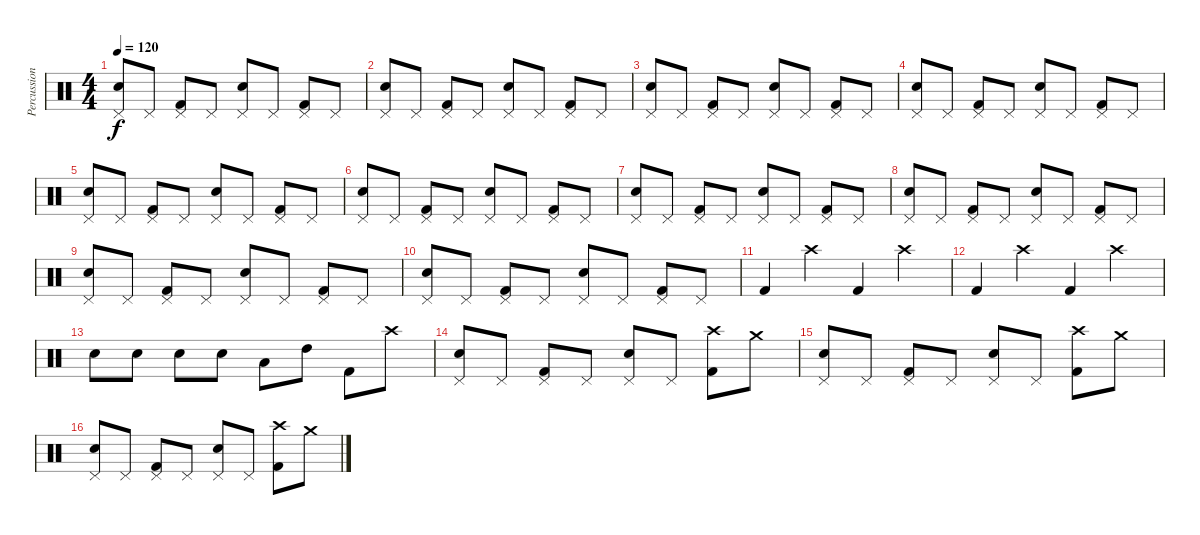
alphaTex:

\track ("Percussion" "Percussion") {instrument percussion}
\staff {score}
\articulation defaults
\ts (4 4)
\tempo 120
\clef neutral
\ks c
("Pedal Hi-Hat (hit)" "Snare (hit) 2").8{dy f} "Pedal Hi-Hat (hit)".8 ("Pedal Hi-Hat (hit)" "Kick (hit) 2").8 "Pedal Hi-Hat (hit)".8 ("Pedal Hi-Hat (hit)" "Snare (hit) 2").8 "Pedal Hi-Hat (hit)".8 ("Pedal Hi-Hat (hit)" "Kick (hit) 2").8 "Pedal Hi-Hat (hit)".8 |
("Pedal Hi-Hat (hit)" "Snare (hit) 2").8 "Pedal Hi-Hat (hit)".8 ("Pedal Hi-Hat (hit)" "Kick (hit) 2").8 "Pedal Hi-Hat (hit)".8 ("Pedal Hi-Hat (hit)" "Snare (hit) 2").8 "Pedal Hi-Hat (hit)".8 ("Pedal Hi-Hat (hit)" "Kick (hit) 2").8 "Pedal Hi-Hat (hit)".8 |
("Pedal Hi-Hat (hit)" "Snare (hit) 2").8 "Pedal Hi-Hat (hit)".8 ("Pedal Hi-Hat (hit)" "Kick (hit) 2").8 "Pedal Hi-Hat (hit)".8 ("Pedal Hi-Hat (hit)" "Snare (hit) 2").8 "Pedal Hi-Hat (hit)".8 ("Pedal Hi-Hat (hit)" "Kick (hit) 2").8 "Pedal Hi-Hat (hit)".8 |
("Pedal Hi-Hat (hit)" "Snare (hit) 2").8 "Pedal Hi-Hat (hit)".8 ("Pedal Hi-Hat (hit)" "Kick (hit) 2").8 "Pedal Hi-Hat (hit)".8 ("Pedal Hi-Hat (hit)" "Snare (hit) 2").8 "Pedal Hi-Hat (hit)".8 ("Pedal Hi-Hat (hit)" "Kick (hit) 2").8 "Pedal Hi-Hat (hit)".8 |
("Pedal Hi-Hat (hit)" "Snare (hit) 2").8 "Pedal Hi-Hat (hit)".8 ("Pedal Hi-Hat (hit)" "Kick (hit) 2").8 "Pedal Hi-Hat (hit)".8 ("Pedal Hi-Hat (hit)" "Snare (hit) 2").8 "Pedal Hi-Hat (hit)".8 ("Pedal Hi-Hat (hit)" "Kick (hit) 2").8 "Pedal Hi-Hat (hit)".8 |
("Pedal Hi-Hat (hit)" "Snare (hit) 2").8 "Pedal Hi-Hat (hit)".8 ("Pedal Hi-Hat (hit)" "Kick (hit) 2").8 "Pedal Hi-Hat (hit)".8 ("Pedal Hi-Hat (hit)" "Snare (hit) 2").8 "Pedal Hi-Hat (hit)".8 ("Pedal Hi-Hat (hit)" "Kick (hit) 2").8 "Pedal Hi-Hat (hit)".8 |
("Pedal Hi-Hat (hit)" "Snare (hit) 2").8 "Pedal Hi-Hat (hit)".8 ("Pedal Hi-Hat (hit)" "Kick (hit) 2").8 "Pedal Hi-Hat (hit)".8 ("Pedal Hi-Hat (hit)" "Snare (hit) 2").8 "Pedal Hi-Hat (hit)".8 ("Pedal Hi-Hat (hit)" "Kick (hit) 2").8 "Pedal Hi-Hat (hit)".8 |
("Pedal Hi-Hat (hit)" "Snare (hit) 2").8 "Pedal Hi-Hat (hit)".8 ("Pedal Hi-Hat (hit)" "Kick (hit) 2").8 "Pedal Hi-Hat (hit)".8 ("Pedal Hi-Hat (hit)" "Snare (hit) 2").8 "Pedal Hi-Hat (hit)".8 ("Pedal Hi-Hat (hit)" "Kick (hit) 2").8 "Pedal Hi-Hat (hit)".8 |
("Pedal Hi-Hat (hit)" "Snare (hit) 2").8 "Pedal Hi-Hat (hit)".8 ("Pedal Hi-Hat (hit)" "Kick (hit) 2").8 "Pedal Hi-Hat (hit)".8 ("Pedal Hi-Hat (hit)" "Snare (hit) 2").8 "Pedal Hi-Hat (hit)".8 ("Pedal Hi-Hat (hit)" "Kick (hit) 2").8 "Pedal Hi-Hat (hit)".8 |
("Pedal Hi-Hat (hit)" "Snare (hit) 2").8 "Pedal Hi-Hat (hit)".8 ("Pedal Hi-Hat (hit)" "Kick (hit) 2").8 "Pedal Hi-Hat (hit)".8 ("Pedal Hi-Hat (hit)" "Snare (hit) 2").8 "Pedal Hi-Hat (hit)".8 ("Pedal Hi-Hat (hit)" "Kick (hit) 2").8 "Pedal Hi-Hat (hit)".8 |
"Kick (hit) 2".4 "Crash high (hit)".4 "Kick (hit) 2".4 "Crash high (hit)".4 |
"Kick (hit) 2".4 "Crash high (hit)".4 "Kick (hit) 2".4 "Crash high (hit)".4 |
"Snare (hit) 2".8 "Snare (hit) 2".8 "Snare (hit) 2".8 "Snare (hit) 2".8 "Low Tom (hit)".8 "High Tom (hit)".8 "Kick (hit) 2".8 "Crash high (hit)".8 |
("Pedal Hi-Hat (hit)" "Snare (hit) 2").8 "Pedal Hi-Hat (hit)".8 ("Pedal Hi-Hat (hit)" "Kick (hit) 2").8 "Pedal Hi-Hat (hit)".8 ("Pedal Hi-Hat (hit)" "Snare (hit) 2").8 "Pedal Hi-Hat (hit)".8 ("Crash high (hit)" "Kick (hit) 2").8 "Crash medium (hit)".8 |
("Pedal Hi-Hat (hit)" "Snare (hit) 2").8 "Pedal Hi-Hat (hit)".8 ("Pedal Hi-Hat (hit)" "Kick (hit) 2").8 "Pedal Hi-Hat (hit)".8 ("Pedal Hi-Hat (hit)" "Snare (hit) 2").8 "Pedal Hi-Hat (hit)".8 ("Crash high (hit)" "Kick (hit) 2").8 "Crash medium (hit)".8 |
("Pedal Hi-Hat (hit)" "Snare (hit) 2").8 "Pedal Hi-Hat (hit)".8 ("Pedal Hi-Hat (hit)" "Kick (hit) 2").8 "Pedal Hi-Hat (hit)".8 ("Pedal Hi-Hat (hit)" "Snare (hit) 2").8 "Pedal Hi-Hat (hit)".8 ("Crash high (hit)" "Kick (hit) 2").8 "Crash medium (hit)".8
